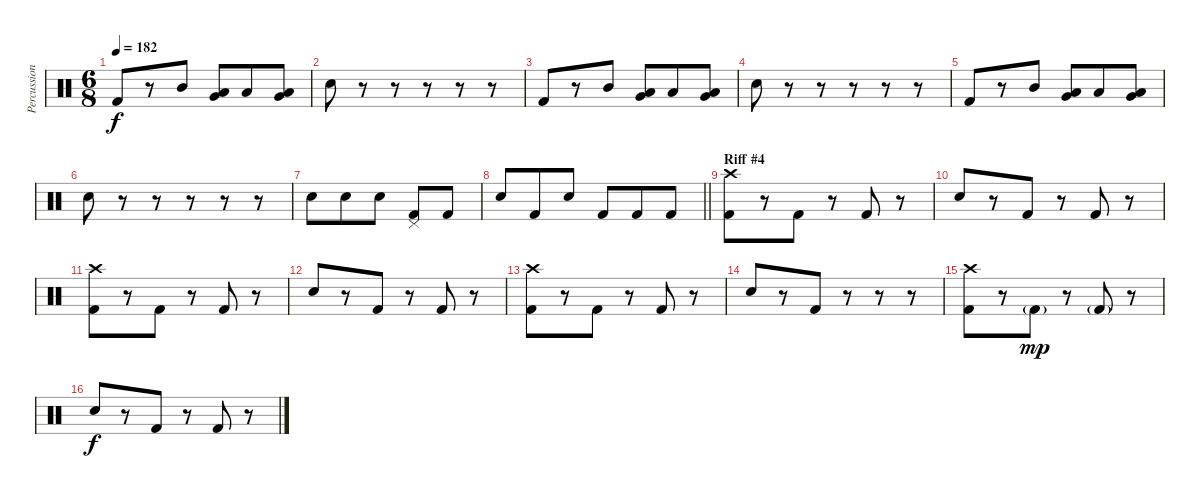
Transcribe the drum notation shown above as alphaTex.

\track ("Percussion" "Percussion") {instrument percussion}
\staff {score}
\articulation defaults
\ts (6 8)
\tempo 182
\clef neutral
\ks c "Kick (hit) 2".8{dy f}
r.8 "Mid Tom (hit)".8 ("Very Low Tom (hit)" "Low Tom (hit)").8 "Low Tom (hit)".8 ("Low Floor Tom (hit)" "Very Low Tom (hit)").8 |
"Snare (hit) 2".8 r.8 r.8 r.8 r.8 r.8 |
"Kick (hit) 2".8 r.8 "Mid Tom (hit)".8 ("Very Low Tom (hit)" "Low Tom (hit)").8 "Low Tom (hit)".8 ("Low Floor Tom (hit)" "Very Low Tom (hit)").8 |
"Snare (hit) 2".8 r.8 r.8 r.8 r.8 r.8 |
"Kick (hit) 2".8 r.8 "Mid Tom (hit)".8 ("Very Low Tom (hit)" "Low Tom (hit)").8 "Low Tom (hit)".8 ("Low Floor Tom (hit)" "Very Low Tom (hit)").8 |
"Snare (hit) 2".8 r.8 r.8 r.8 r.8 r.8 |
"Snare (hit) 2".8 "Snare (hit) 2".8 "Snare (hit) 2".8 ("Kick (hit) 2" "Pedal Hi-Hat (hit)").8 "Kick (hit) 2".8 |
\barLineRight lightlight "Snare (hit) 2".8 "Kick (hit) 2".8 "Snare (hit) 2".8 "Kick (hit) 2".8 "Kick (hit) 2".8 "Kick (hit) 2".8
|
\section ("" "Riff #4")
("Kick (hit) 2" "Crash high (hit)").8 r.8 "Kick (hit) 2".8 r.8 "Kick (hit) 2".8 r.8 |
"Snare (hit) 2".8 r.8 "Kick (hit) 2".8 r.8 "Kick (hit) 2".8 r.8 |
("Kick (hit) 2" "Crash high (hit)").8 r.8 "Kick (hit) 2".8 r.8 "Kick (hit) 2".8 r.8 |
"Snare (hit) 2".8 r.8 "Kick (hit) 2".8 r.8 "Kick (hit) 2".8 r.8 |
("Kick (hit) 2" "Crash high (hit)").8 r.8 "Kick (hit) 2".8 r.8 "Kick (hit) 2".8 r.8 |
"Snare (hit) 2".8 r.8 "Kick (hit) 2".8 r.8 r.8 r.8 |
("Kick (hit) 2" "Crash high (hit)").8 r.8 "Kick (hit) 2"{g}.8{dy mp} r.8 "Kick (hit) 2"{g}.8 r.8 |
"Snare (hit) 2".8{dy f} r.8 "Kick (hit) 2".8 r.8 "Kick (hit) 2".8 r.8
